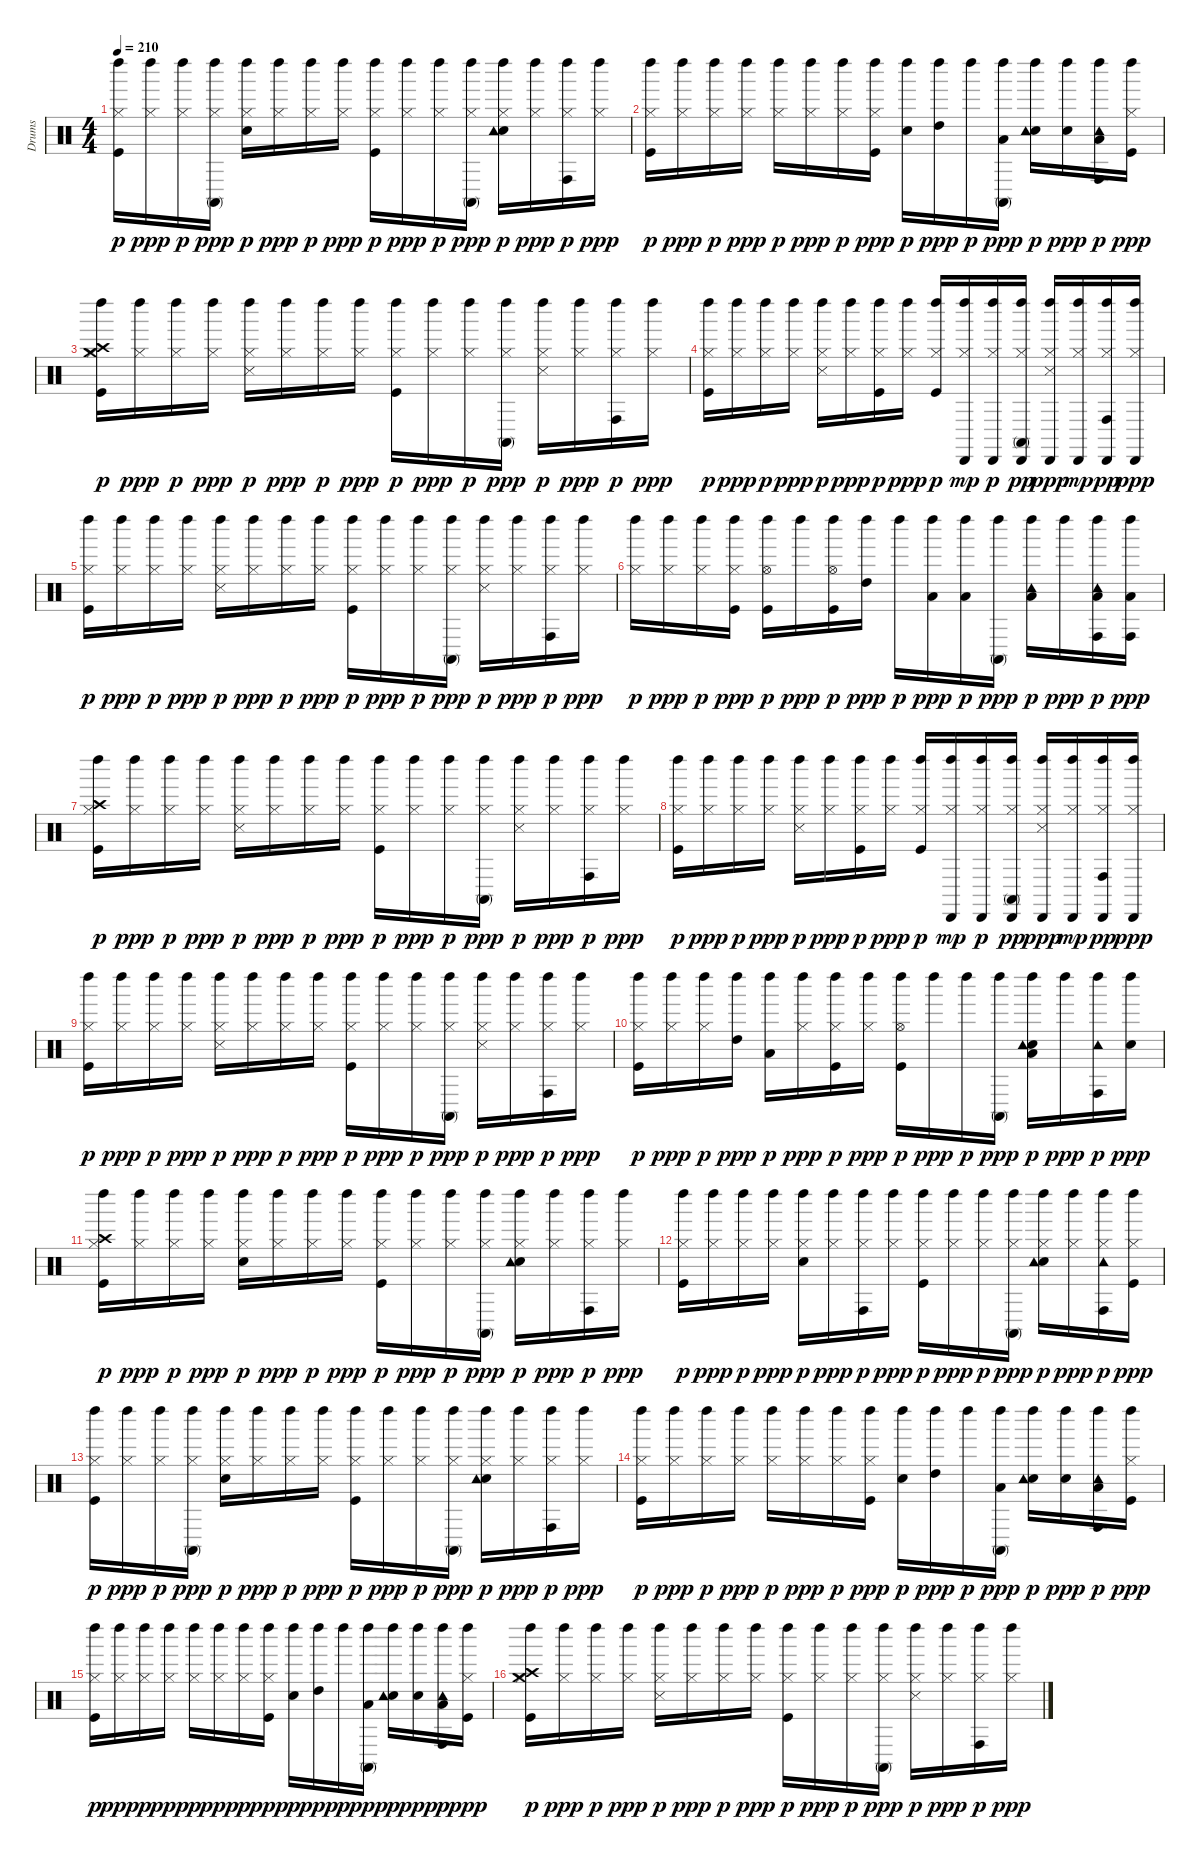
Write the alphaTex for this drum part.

\track ("Drums" "Drums") {instrument percussion}
\staff {score}
\articulation defaults
\ts (4 4)
\tempo 210
\clef neutral
\ks c
("Kick (hit)" "Hi-Hat (closed)" "Left Maraca (hit)").16{dy p} ("Hi-Hat (closed)" "Left Maraca (hit)").16{dy ppp} ("Hi-Hat (closed)" "Left Maraca (hit)").16{dy p} ("Hi-Hat (closed)" "Conga high (mute)" "Left Maraca (hit)").16{dy ppp} ("Snare (hit) 2" "Hi-Hat (closed)" "Left Maraca (hit)").16{dy p} ("Hi-Hat (closed)" "Left Maraca (hit)").16{dy ppp} ("Hi-Hat (closed)" "Left Maraca (hit)").16{dy p} ("Hi-Hat (closed)" "Left Maraca (hit)").16{dy ppp} ("Kick (hit)" "Hi-Hat (closed)" "Left Maraca (hit)").16{dy p} ("Hi-Hat (closed)" "Left Maraca (hit)").16{dy ppp} ("Hi-Hat (closed)" "Left Maraca (hit)").16{dy p} ("Hi-Hat (closed)" "Conga high (mute)" "Left Maraca (hit)").16{dy ppp} ("Snare (hit) 2" "Hi-Hat (closed)" "Tambourine (hit)" "Left Maraca (hit)").16{dy p} ("Hi-Hat (closed)" "Left Maraca (hit)").16{dy ppp} ("Hi-Hat (closed)" "Conga high (hit)" "Left Maraca (hit)").16{dy p} ("Hi-Hat (closed)" "Left Maraca (hit)").16{dy ppp} |
("Kick (hit)" "Hi-Hat (closed)" "Left Maraca (hit)").16{dy p} ("Hi-Hat (closed)" "Left Maraca (hit)").16{dy ppp} ("Hi-Hat (closed)" "Left Maraca (hit)").16{dy p} ("Hi-Hat (closed)" "Left Maraca (hit)").16{dy ppp} ("Hi-Hat (closed)" "Left Maraca (hit)").16{dy p} ("Hi-Hat (closed)" "Left Maraca (hit)").16{dy ppp} ("Hi-Hat (closed)" "Left Maraca (hit)").16{dy p} ("Kick (hit)" "Hi-Hat (closed)" "Left Maraca (hit)").16{dy ppp} ("Snare (hit) 2" "Left Maraca (hit)").16{dy p} ("High Tom (hit)" "Left Maraca (hit)").16{dy ppp} "Left Maraca (hit)".16{dy p} ("Low Tom (hit)" "Conga high (mute)" "Left Maraca (hit)").16{dy ppp} ("Snare (hit) 2" "Tambourine (hit)" "Left Maraca (hit)").16{dy p} ("Snare (hit) 2" "Left Maraca (hit)").16{dy ppp} ("Low Floor Tom (hit)" "Conga high (hit)" "Tambourine (hit)" "Left Maraca (hit)").16{dy p} ("Kick (hit)" "Hi-Hat (closed)" "Left Maraca (hit)").16{dy ppp} |
("Crash medium (hit)" "Kick (hit)" "Hi-Hat (closed)" "Crash high (hit)" "Left Maraca (hit)").16{dy p} ("Hi-Hat (closed)" "Left Maraca (hit)").16{dy ppp} ("Hi-Hat (closed)" "Left Maraca (hit)").16{dy p} ("Hi-Hat (closed)" "Left Maraca (hit)").16{dy ppp} ("Hi-Hat (closed)" "Snare (side stick) 3" "Left Maraca (hit)").16{dy p} ("Hi-Hat (closed)" "Left Maraca (hit)").16{dy ppp} ("Hi-Hat (closed)" "Left Maraca (hit)").16{dy p} ("Hi-Hat (closed)" "Left Maraca (hit)").16{dy ppp} ("Kick (hit)" "Hi-Hat (closed)" "Left Maraca (hit)").16{dy p} ("Hi-Hat (closed)" "Left Maraca (hit)").16{dy ppp} ("Hi-Hat (closed)" "Left Maraca (hit)").16{dy p} ("Hi-Hat (closed)" "Conga high (mute)" "Left Maraca (hit)").16{dy ppp} ("Hi-Hat (closed)" "Snare (side stick) 3" "Left Maraca (hit)").16{dy p} ("Hi-Hat (closed)" "Left Maraca (hit)").16{dy ppp} ("Hi-Hat (closed)" "Conga high (hit)" "Left Maraca (hit)").16{dy p} ("Hi-Hat (closed)" "Left Maraca (hit)").16{dy ppp} |
("Kick (hit)" "Hi-Hat (closed)" "Left Maraca (hit)").16{dy p} ("Hi-Hat (closed)" "Left Maraca (hit)").16{dy ppp} ("Hi-Hat (closed)" "Left Maraca (hit)").16{dy p} ("Hi-Hat (closed)" "Left Maraca (hit)").16{dy ppp} ("Hi-Hat (closed)" "Snare (side stick) 3" "Left Maraca (hit)").16{dy p} ("Hi-Hat (closed)" "Left Maraca (hit)").16{dy ppp} ("Kick (hit)" "Hi-Hat (closed)" "Left Maraca (hit)").16{dy p} ("Hi-Hat (closed)" "Left Maraca (hit)").16{dy ppp} ("Kick (hit)" "Hi-Hat (closed)" "Left Maraca (hit)").16{dy p} ("Hi-Hat (closed)" "Left Maraca (hit)" "Cabasa (hit)").16{dy mp} ("Hi-Hat (closed)" "Left Maraca (hit)" "Cabasa (hit)").16{dy p} ("Hi-Hat (closed)" "Conga high (mute)" "Left Maraca (hit)" "Cabasa (hit)").16{dy pp} ("Hi-Hat (closed)" "Snare (side stick) 3" "Left Maraca (hit)" "Cabasa (hit)").16{dy ppp} ("Hi-Hat (closed)" "Left Maraca (hit)" "Cabasa (hit)").16{dy mp} ("Hi-Hat (closed)" "Conga high (hit)" "Left Maraca (hit)" "Cabasa (hit)").16{dy pp} ("Hi-Hat (closed)" "Left Maraca (hit)" "Cabasa (hit)").16{dy ppp} |
("Kick (hit)" "Hi-Hat (closed)" "Left Maraca (hit)").16{dy p} ("Hi-Hat (closed)" "Left Maraca (hit)").16{dy ppp} ("Hi-Hat (closed)" "Left Maraca (hit)").16{dy p} ("Hi-Hat (closed)" "Left Maraca (hit)").16{dy ppp} ("Hi-Hat (closed)" "Snare (side stick) 3" "Left Maraca (hit)").16{dy p} ("Hi-Hat (closed)" "Left Maraca (hit)").16{dy ppp} ("Hi-Hat (closed)" "Left Maraca (hit)").16{dy p} ("Hi-Hat (closed)" "Left Maraca (hit)").16{dy ppp} ("Kick (hit)" "Hi-Hat (closed)" "Left Maraca (hit)").16{dy p} ("Hi-Hat (closed)" "Left Maraca (hit)").16{dy ppp} ("Hi-Hat (closed)" "Left Maraca (hit)").16{dy p} ("Hi-Hat (closed)" "Conga high (mute)" "Left Maraca (hit)").16{dy ppp} ("Hi-Hat (closed)" "Snare (side stick) 3" "Left Maraca (hit)").16{dy p} ("Hi-Hat (closed)" "Left Maraca (hit)").16{dy ppp} ("Hi-Hat (closed)" "Conga high (hit)" "Left Maraca (hit)").16{dy p} ("Hi-Hat (closed)" "Left Maraca (hit)").16{dy ppp} |
("Hi-Hat (closed)" "Left Maraca (hit)").16{dy p} ("Hi-Hat (closed)" "Left Maraca (hit)").16{dy ppp} ("Hi-Hat (closed)" "Left Maraca (hit)").16{dy p} ("Kick (hit)" "Hi-Hat (closed)" "Left Maraca (hit)").16{dy ppp} ("Kick (hit)" "Hi-Hat (open)" "Left Maraca (hit)").16{dy p} "Left Maraca (hit)".16{dy ppp} ("Kick (hit)" "Hi-Hat (open)" "Left Maraca (hit)").16{dy p} ("High Tom (hit)" "Left Maraca (hit)").16{dy ppp} "Left Maraca (hit)".16{dy p} ("Low Tom (hit)" "Left Maraca (hit)").16{dy ppp} ("Low Tom (hit)" "Left Maraca (hit)").16{dy p} ("Conga high (mute)" "Left Maraca (hit)").16{dy ppp} ("Low Tom (hit)" "Tambourine (hit)" "Left Maraca (hit)").16{dy p} "Left Maraca (hit)".16{dy ppp} ("Low Floor Tom (hit)" "Conga high (hit)" "Tambourine (hit)" "Left Maraca (hit)").16{dy p} ("Low Floor Tom (hit)" "Conga high (hit)" "Left Maraca (hit)").16{dy ppp} |
("Kick (hit)" "Hi-Hat (closed)" "Crash high (hit)" "Left Maraca (hit)").16{dy p} ("Hi-Hat (closed)" "Left Maraca (hit)").16{dy ppp} ("Hi-Hat (closed)" "Left Maraca (hit)").16{dy p} ("Hi-Hat (closed)" "Left Maraca (hit)").16{dy ppp} ("Hi-Hat (closed)" "Snare (side stick) 3" "Left Maraca (hit)").16{dy p} ("Hi-Hat (closed)" "Left Maraca (hit)").16{dy ppp} ("Hi-Hat (closed)" "Left Maraca (hit)").16{dy p} ("Hi-Hat (closed)" "Left Maraca (hit)").16{dy ppp} ("Kick (hit)" "Hi-Hat (closed)" "Left Maraca (hit)").16{dy p} ("Hi-Hat (closed)" "Left Maraca (hit)").16{dy ppp} ("Hi-Hat (closed)" "Left Maraca (hit)").16{dy p} ("Hi-Hat (closed)" "Conga high (mute)" "Left Maraca (hit)").16{dy ppp} ("Hi-Hat (closed)" "Snare (side stick) 3" "Left Maraca (hit)").16{dy p} ("Hi-Hat (closed)" "Left Maraca (hit)").16{dy ppp} ("Hi-Hat (closed)" "Conga high (hit)" "Left Maraca (hit)").16{dy p} ("Hi-Hat (closed)" "Left Maraca (hit)").16{dy ppp} |
("Kick (hit)" "Hi-Hat (closed)" "Left Maraca (hit)").16{dy p} ("Hi-Hat (closed)" "Left Maraca (hit)").16{dy ppp} ("Hi-Hat (closed)" "Left Maraca (hit)").16{dy p} ("Hi-Hat (closed)" "Left Maraca (hit)").16{dy ppp} ("Hi-Hat (closed)" "Snare (side stick) 3" "Left Maraca (hit)").16{dy p} ("Hi-Hat (closed)" "Left Maraca (hit)").16{dy ppp} ("Kick (hit)" "Hi-Hat (closed)" "Left Maraca (hit)").16{dy p} ("Hi-Hat (closed)" "Left Maraca (hit)").16{dy ppp} ("Kick (hit)" "Hi-Hat (closed)" "Left Maraca (hit)").16{dy p} ("Hi-Hat (closed)" "Left Maraca (hit)" "Cabasa (hit)").16{dy mp} ("Hi-Hat (closed)" "Left Maraca (hit)" "Cabasa (hit)").16{dy p} ("Hi-Hat (closed)" "Conga high (mute)" "Left Maraca (hit)" "Cabasa (hit)").16{dy pp} ("Hi-Hat (closed)" "Snare (side stick) 3" "Left Maraca (hit)" "Cabasa (hit)").16{dy ppp} ("Hi-Hat (closed)" "Left Maraca (hit)" "Cabasa (hit)").16{dy mp} ("Hi-Hat (closed)" "Conga high (hit)" "Left Maraca (hit)" "Cabasa (hit)").16{dy pp} ("Hi-Hat (closed)" "Left Maraca (hit)" "Cabasa (hit)").16{dy ppp} |
("Kick (hit)" "Hi-Hat (closed)" "Left Maraca (hit)").16{dy p} ("Hi-Hat (closed)" "Left Maraca (hit)").16{dy ppp} ("Hi-Hat (closed)" "Left Maraca (hit)").16{dy p} ("Hi-Hat (closed)" "Left Maraca (hit)").16{dy ppp} ("Hi-Hat (closed)" "Snare (side stick) 3" "Left Maraca (hit)").16{dy p} ("Hi-Hat (closed)" "Left Maraca (hit)").16{dy ppp} ("Hi-Hat (closed)" "Left Maraca (hit)").16{dy p} ("Hi-Hat (closed)" "Left Maraca (hit)").16{dy ppp} ("Kick (hit)" "Hi-Hat (closed)" "Left Maraca (hit)").16{dy p} ("Hi-Hat (closed)" "Left Maraca (hit)").16{dy ppp} ("Hi-Hat (closed)" "Left Maraca (hit)").16{dy p} ("Hi-Hat (closed)" "Conga high (mute)" "Left Maraca (hit)").16{dy ppp} ("Hi-Hat (closed)" "Snare (side stick) 3" "Left Maraca (hit)").16{dy p} ("Hi-Hat (closed)" "Left Maraca (hit)").16{dy ppp} ("Hi-Hat (closed)" "Conga high (hit)" "Left Maraca (hit)").16{dy p} ("Hi-Hat (closed)" "Left Maraca (hit)").16{dy ppp} |
("Kick (hit)" "Hi-Hat (closed)" "Left Maraca (hit)").16{dy p} ("Hi-Hat (closed)" "Left Maraca (hit)").16{dy ppp} ("Hi-Hat (closed)" "Left Maraca (hit)").16{dy p} ("High Tom (hit)" "Left Maraca (hit)").16{dy ppp} ("Low Tom (hit)" "Left Maraca (hit)").16{dy p} ("Hi-Hat (closed)" "Left Maraca (hit)").16{dy ppp} ("Kick (hit)" "Hi-Hat (closed)" "Left Maraca (hit)").16{dy p} ("Hi-Hat (closed)" "Left Maraca (hit)").16{dy ppp} ("Kick (hit)" "Hi-Hat (open)" "Left Maraca (hit)").16{dy p} "Left Maraca (hit)".16{dy ppp} "Left Maraca (hit)".16{dy p} ("Conga high (mute)" "Left Maraca (hit)").16{dy ppp} ("Snare (hit) 2" "Low Floor Tom (hit)" "Tambourine (hit)" "Left Maraca (hit)").16{dy p} "Left Maraca (hit)".16{dy ppp} ("Conga high (hit)" "Tambourine (hit)" "Left Maraca (hit)").16{dy p} ("Snare (hit) 2" "Left Maraca (hit)").16{dy ppp} |
("Kick (hit)" "Hi-Hat (closed)" "Crash high (hit)" "Left Maraca (hit)").16{dy p} ("Hi-Hat (closed)" "Left Maraca (hit)").16{dy ppp} ("Hi-Hat (closed)" "Left Maraca (hit)").16{dy p} ("Hi-Hat (closed)" "Left Maraca (hit)").16{dy ppp} ("Snare (hit) 2" "Hi-Hat (closed)" "Left Maraca (hit)").16{dy p} ("Hi-Hat (closed)" "Left Maraca (hit)").16{dy ppp} ("Hi-Hat (closed)" "Left Maraca (hit)").16{dy p} ("Hi-Hat (closed)" "Left Maraca (hit)").16{dy ppp} ("Kick (hit)" "Hi-Hat (closed)" "Left Maraca (hit)").16{dy p} ("Hi-Hat (closed)" "Left Maraca (hit)").16{dy ppp} ("Hi-Hat (closed)" "Left Maraca (hit)").16{dy p} ("Hi-Hat (closed)" "Conga high (mute)" "Left Maraca (hit)").16{dy ppp} ("Snare (hit) 2" "Hi-Hat (closed)" "Tambourine (hit)" "Left Maraca (hit)").16{dy p} ("Hi-Hat (closed)" "Left Maraca (hit)").16{dy ppp} ("Hi-Hat (closed)" "Conga high (hit)" "Left Maraca (hit)").16{dy p} ("Hi-Hat (closed)" "Left Maraca (hit)").16{dy ppp} |
("Kick (hit)" "Hi-Hat (closed)" "Left Maraca (hit)").16{dy p} ("Hi-Hat (closed)" "Left Maraca (hit)").16{dy ppp} ("Hi-Hat (closed)" "Left Maraca (hit)").16{dy p} ("Hi-Hat (closed)" "Left Maraca (hit)").16{dy ppp} ("Snare (hit) 2" "Hi-Hat (closed)" "Left Maraca (hit)").16{dy p} ("Hi-Hat (closed)" "Left Maraca (hit)").16{dy ppp} ("Hi-Hat (closed)" "Conga high (hit)" "Left Maraca (hit)").16{dy p} ("Hi-Hat (closed)" "Left Maraca (hit)").16{dy ppp} ("Kick (hit)" "Hi-Hat (closed)" "Left Maraca (hit)").16{dy p} ("Hi-Hat (closed)" "Left Maraca (hit)").16{dy ppp} ("Hi-Hat (closed)" "Left Maraca (hit)").16{dy p} ("Hi-Hat (closed)" "Conga high (mute)" "Left Maraca (hit)").16{dy ppp} ("Snare (hit) 2" "Hi-Hat (closed)" "Tambourine (hit)" "Left Maraca (hit)").16{dy p} ("Hi-Hat (closed)" "Left Maraca (hit)").16{dy ppp} ("Hi-Hat (closed)" "Conga high (hit)" "Tambourine (hit)" "Left Maraca (hit)").16{dy p} ("Kick (hit)" "Hi-Hat (closed)" "Left Maraca (hit)").16{dy ppp} |
("Kick (hit)" "Hi-Hat (closed)" "Left Maraca (hit)").16{dy p} ("Hi-Hat (closed)" "Left Maraca (hit)").16{dy ppp} ("Hi-Hat (closed)" "Left Maraca (hit)").16{dy p} ("Hi-Hat (closed)" "Conga high (mute)" "Left Maraca (hit)").16{dy ppp} ("Snare (hit) 2" "Hi-Hat (closed)" "Left Maraca (hit)").16{dy p} ("Hi-Hat (closed)" "Left Maraca (hit)").16{dy ppp} ("Hi-Hat (closed)" "Left Maraca (hit)").16{dy p} ("Hi-Hat (closed)" "Left Maraca (hit)").16{dy ppp} ("Kick (hit)" "Hi-Hat (closed)" "Left Maraca (hit)").16{dy p} ("Hi-Hat (closed)" "Left Maraca (hit)").16{dy ppp} ("Hi-Hat (closed)" "Left Maraca (hit)").16{dy p} ("Hi-Hat (closed)" "Conga high (mute)" "Left Maraca (hit)").16{dy ppp} ("Snare (hit) 2" "Hi-Hat (closed)" "Tambourine (hit)" "Left Maraca (hit)").16{dy p} ("Hi-Hat (closed)" "Left Maraca (hit)").16{dy ppp} ("Hi-Hat (closed)" "Conga high (hit)" "Left Maraca (hit)").16{dy p} ("Hi-Hat (closed)" "Left Maraca (hit)").16{dy ppp} |
("Kick (hit)" "Hi-Hat (closed)" "Left Maraca (hit)").16{dy p} ("Hi-Hat (closed)" "Left Maraca (hit)").16{dy ppp} ("Hi-Hat (closed)" "Left Maraca (hit)").16{dy p} ("Hi-Hat (closed)" "Left Maraca (hit)").16{dy ppp} ("Hi-Hat (closed)" "Left Maraca (hit)").16{dy p} ("Hi-Hat (closed)" "Left Maraca (hit)").16{dy ppp} ("Hi-Hat (closed)" "Left Maraca (hit)").16{dy p} ("Kick (hit)" "Hi-Hat (closed)" "Left Maraca (hit)").16{dy ppp} ("Snare (hit) 2" "Left Maraca (hit)").16{dy p} ("High Tom (hit)" "Left Maraca (hit)").16{dy ppp} "Left Maraca (hit)".16{dy p} ("Low Tom (hit)" "Conga high (mute)" "Left Maraca (hit)").16{dy ppp} ("Snare (hit) 2" "Tambourine (hit)" "Left Maraca (hit)").16{dy p} ("Snare (hit) 2" "Left Maraca (hit)").16{dy ppp} ("Low Floor Tom (hit)" "Conga high (hit)" "Tambourine (hit)" "Left Maraca (hit)").16{dy p} ("Kick (hit)" "Hi-Hat (closed)" "Left Maraca (hit)").16{dy ppp} |
("Kick (hit)" "Hi-Hat (closed)" "Left Maraca (hit)").16{dy p} ("Hi-Hat (closed)" "Left Maraca (hit)").16{dy ppp} ("Hi-Hat (closed)" "Left Maraca (hit)").16{dy p} ("Hi-Hat (closed)" "Left Maraca (hit)").16{dy ppp} ("Hi-Hat (closed)" "Left Maraca (hit)").16{dy p} ("Hi-Hat (closed)" "Left Maraca (hit)").16{dy ppp} ("Hi-Hat (closed)" "Left Maraca (hit)").16{dy p} ("Kick (hit)" "Hi-Hat (closed)" "Left Maraca (hit)").16{dy ppp} ("Snare (hit) 2" "Left Maraca (hit)").16{dy p} ("High Tom (hit)" "Left Maraca (hit)").16{dy ppp} "Left Maraca (hit)".16{dy p} ("Low Tom (hit)" "Conga high (mute)" "Left Maraca (hit)").16{dy ppp} ("Snare (hit) 2" "Tambourine (hit)" "Left Maraca (hit)").16{dy p} ("Snare (hit) 2" "Left Maraca (hit)").16{dy ppp} ("Low Floor Tom (hit)" "Conga high (hit)" "Tambourine (hit)" "Left Maraca (hit)").16{dy p} ("Kick (hit)" "Hi-Hat (closed)" "Left Maraca (hit)").16{dy ppp} |
("Crash medium (hit)" "Kick (hit)" "Hi-Hat (closed)" "Crash high (hit)" "Left Maraca (hit)").16{dy p} ("Hi-Hat (closed)" "Left Maraca (hit)").16{dy ppp} ("Hi-Hat (closed)" "Left Maraca (hit)").16{dy p} ("Hi-Hat (closed)" "Left Maraca (hit)").16{dy ppp} ("Hi-Hat (closed)" "Snare (side stick) 3" "Left Maraca (hit)").16{dy p} ("Hi-Hat (closed)" "Left Maraca (hit)").16{dy ppp} ("Hi-Hat (closed)" "Left Maraca (hit)").16{dy p} ("Hi-Hat (closed)" "Left Maraca (hit)").16{dy ppp} ("Kick (hit)" "Hi-Hat (closed)" "Left Maraca (hit)").16{dy p} ("Hi-Hat (closed)" "Left Maraca (hit)").16{dy ppp} ("Hi-Hat (closed)" "Left Maraca (hit)").16{dy p} ("Hi-Hat (closed)" "Conga high (mute)" "Left Maraca (hit)").16{dy ppp} ("Hi-Hat (closed)" "Snare (side stick) 3" "Left Maraca (hit)").16{dy p} ("Hi-Hat (closed)" "Left Maraca (hit)").16{dy ppp} ("Hi-Hat (closed)" "Conga high (hit)" "Left Maraca (hit)").16{dy p} ("Hi-Hat (closed)" "Left Maraca (hit)").16{dy ppp}
